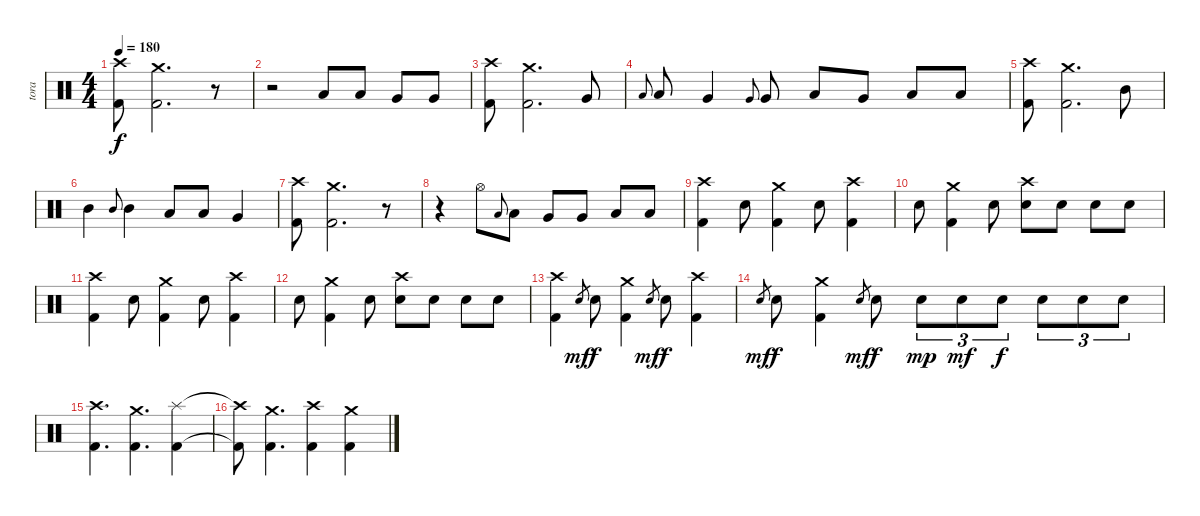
\track ("tora" "tora") {instrument percussion}
\staff {score}
\articulation defaults
\ts (4 4)
\tempo 180
\clef neutral
\ks c
("Crash high (hit)" "Kick (hit) 2").8{dy f} ("Crash medium (hit)" "Kick (hit) 2").2{d} r.8 |
r.2 "Low Tom (hit)".8 "Low Tom (hit)".8 "Very Low Tom (hit)".8 "Very Low Tom (hit)".8 |
("Crash high (hit)" "Kick (hit) 2").8 ("Crash medium (hit)" "Kick (hit) 2").2{d} "Very Low Tom (hit)".8 |
"Low Tom (hit)".8{gr onbeat} "Low Tom (hit)".8 "Very Low Tom (hit)".4 "Very Low Tom (hit)".8{gr onbeat} "Very Low Tom (hit)".8 "Low Tom (hit)".8 "Very Low Tom (hit)".8 "Low Floor Tom (hit)".8 "Low Floor Tom (hit)".8 |
("Crash high (hit)" "Kick (hit) 2").8 ("Crash medium (hit)" "Kick (hit) 2").2{d} "Mid Tom (hit)".8 |
"Mid Tom (hit)".4 "Mid Tom (hit)".8{gr onbeat} "Mid Tom (hit)".4 "Low Tom (hit)".8 "Low Tom (hit)".8 "Very Low Tom (hit)".4 |
("Crash high (hit)" "Kick (hit) 2").8 ("Crash medium (hit)" "Kick (hit) 2").2{d} r.8 |
r.4 "Hi-Hat (open)".8 "Low Tom (hit)".8{gr onbeat} "Low Tom (hit)".8 "Very Low Tom (hit)".8 "Very Low Tom (hit)".8 "Low Floor Tom (hit)".8 "Low Floor Tom (hit)".8 |
("Crash high (hit)" "Kick (hit) 2").4 "Snare (hit) 2".8 ("Crash medium (hit)" "Kick (hit) 2").4 "Snare (hit) 2".8 ("Crash high (hit)" "Kick (hit) 2").4 |
"Snare (hit) 2".8 ("Crash medium (hit)" "Kick (hit) 2").4 "Snare (hit) 2".8 ("Crash high (hit)" "Snare (hit) 2").8 "Snare (hit) 2".8 "Snare (hit) 2".8 "Snare (hit) 2".8 |
("Crash high (hit)" "Kick (hit) 2").4 "Snare (hit) 2".8 ("Crash medium (hit)" "Kick (hit) 2").4 "Snare (hit) 2".8 ("Crash high (hit)" "Kick (hit) 2").4 |
"Snare (hit) 2".8 ("Crash medium (hit)" "Kick (hit) 2").4 "Snare (hit) 2".8 ("Crash high (hit)" "Snare (hit) 2").8 "Snare (hit) 2".8 "Snare (hit) 2".8 "Snare (hit) 2".8 |
("Crash high (hit)" "Kick (hit) 2").4 "Snare (hit) 2".8{gr dy mf} "Snare (hit) 2".8{dy f} ("Crash medium (hit)" "Kick (hit) 2").4 "Snare (hit) 2".8{gr dy mf} "Snare (hit) 2".8{dy f} ("Crash high (hit)" "Kick (hit) 2").4 |
"Snare (hit) 2".8{gr dy mf} "Snare (hit) 2".8{dy f} ("Crash medium (hit)" "Kick (hit) 2").4 "Snare (hit) 2".8{gr dy mf} "Snare (hit) 2".8{dy f} "Snare (hit) 2".8{tu (3 2) dy mp} "Snare (hit) 2".8{tu (3 2) dy mf} "Snare (hit) 2".8{tu (3 2) dy f} "Snare (hit) 2".8{tu (3 2)} "Snare (hit) 2".8{tu (3 2)} "Snare (hit) 2".8{tu (3 2)} |
("Crash high (hit)" "Kick (hit) 2").4{d} ("Crash medium (hit)" "Kick (hit) 2").4{d} ("Splash (hit)" "Kick (hit) 2").4 |
("Crash high (hit)"{t} "Kick (hit) 2"{t}).8 ("Crash medium (hit)" "Kick (hit) 2").4{d} ("Crash high (hit)" "Kick (hit) 2").4 ("Crash medium (hit)" "Kick (hit) 2").4
